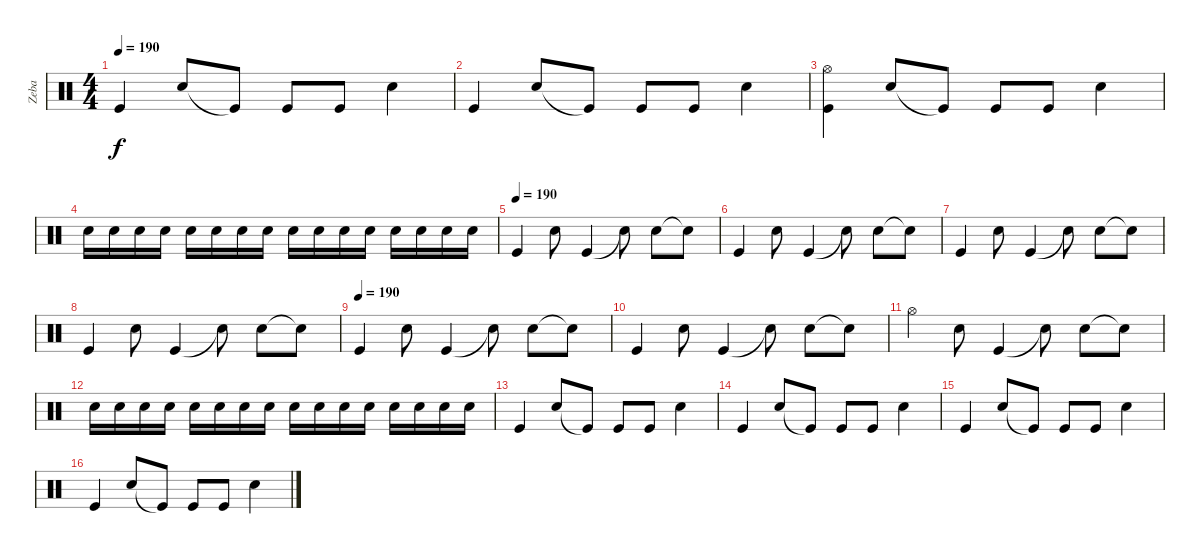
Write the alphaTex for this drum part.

\track ("Zeba" "Zeba") {instrument percussion}
\staff {score}
\articulation defaults
\ts (4 4)
\tempo 190
\clef neutral
\ks c "Kick (hit)".4{dy f} "Snare (hit) 2".8 "Kick (hit)"{t}.8 "Kick (hit)".8 "Kick (hit)".8 "Snare (hit) 2".4
|
"Kick (hit)".4 "Snare (hit) 2".8 "Kick (hit)"{t}.8 "Kick (hit)".8 "Kick (hit)".8 "Snare (hit) 2".4 |
("Hi-Hat (open)" "Kick (hit)").4 "Snare (hit) 2".8 "Kick (hit)"{t}.8 "Kick (hit)".8 "Kick (hit)".8 "Snare (hit) 2".4 |
"Electric Snare (hit)".16 "Electric Snare (hit)".16 "Electric Snare (hit)".16 "Electric Snare (hit)".16 "Electric Snare (hit)".16 "Electric Snare (hit)".16 "Electric Snare (hit)".16 "Electric Snare (hit)".16 "Snare (hit) 2".16 "Snare (hit) 2".16 "Snare (hit) 2".16 "Snare (hit) 2".16 "Snare (hit) 2".16 "Snare (hit) 2".16 "Snare (hit) 2".16 "Snare (hit) 2".16 |
\tempo (190)
"Kick (hit)".4 "Snare (hit) 2".8 "Kick (hit)".4 "Snare (hit) 2"{t}.8 "Snare (hit) 2".8 "Snare (hit)"{t}.8 |
"Kick (hit)".4 "Snare (hit) 2".8 "Kick (hit)".4 "Snare (hit) 2"{t}.8 "Snare (hit) 2".8 "Snare (hit)"{t}.8 |
"Kick (hit)".4 "Snare (hit) 2".8 "Kick (hit)".4 "Snare (hit) 2"{t}.8 "Snare (hit) 2".8 "Snare (hit)"{t}.8 |
"Kick (hit)".4 "Snare (hit) 2".8 "Kick (hit)".4 "Snare (hit) 2"{t}.8 "Snare (hit) 2".8 "Snare (hit)"{t}.8 |
\tempo (190)
"Kick (hit)".4 "Snare (hit) 2".8 "Kick (hit)".4 "Snare (hit) 2"{t}.8 "Snare (hit) 2".8 "Snare (hit)"{t}.8 |
"Kick (hit)".4 "Snare (hit) 2".8 "Kick (hit)".4 "Snare (hit) 2"{t}.8 "Snare (hit) 2".8 "Snare (hit)"{t}.8 |
"Hi-Hat (open)".4 "Snare (hit) 2".8 "Kick (hit)".4 "Snare (hit) 2"{t}.8 "Snare (hit) 2".8 "Snare (hit)"{t}.8 |
"Electric Snare (hit)".16 "Electric Snare (hit)".16 "Electric Snare (hit)".16 "Electric Snare (hit)".16 "Electric Snare (hit)".16 "Electric Snare (hit)".16 "Electric Snare (hit)".16 "Electric Snare (hit)".16 "Snare (hit) 2".16 "Snare (hit) 2".16 "Snare (hit) 2".16 "Snare (hit) 2".16 "Snare (hit) 2".16 "Snare (hit) 2".16 "Snare (hit) 2".16 "Snare (hit) 2".16 |
"Kick (hit)".4 "Snare (hit) 2".8 "Kick (hit)"{t}.8 "Kick (hit)".8 "Kick (hit)".8 "Snare (hit) 2".4 |
"Kick (hit)".4 "Snare (hit) 2".8 "Kick (hit)"{t}.8 "Kick (hit)".8 "Kick (hit)".8 "Snare (hit) 2".4 |
"Kick (hit)".4 "Snare (hit) 2".8 "Kick (hit)"{t}.8 "Kick (hit)".8 "Kick (hit)".8 "Snare (hit) 2".4 |
"Kick (hit)".4 "Snare (hit) 2".8 "Kick (hit)"{t}.8 "Kick (hit)".8 "Kick (hit)".8 "Snare (hit) 2".4
